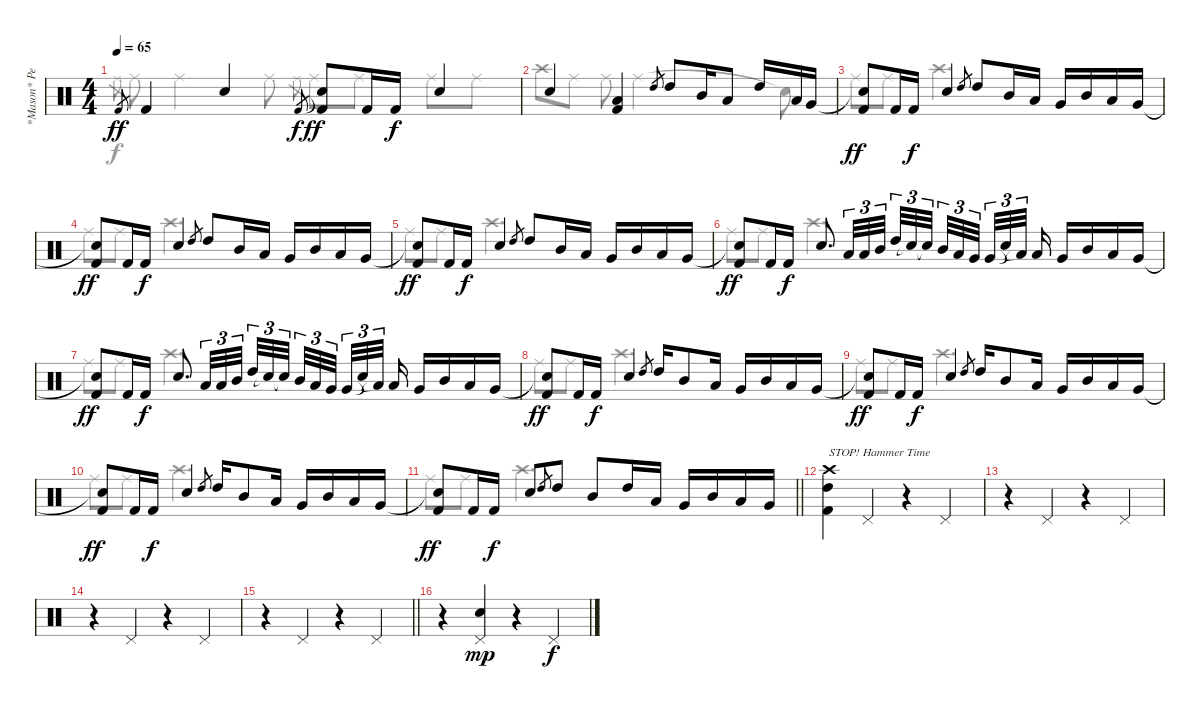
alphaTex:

\track ("*Mason* Percussion" "*Mason* Pe") {instrument percussion}
\staff {score}
\articulation defaults
\voice
\ts (4 4)
\tempo 65
\clef neutral
\ks c "Kick (hit) 2".8{gr dy ff} "Kick (hit) 2".4 "Snare (hit) 2".4 "Kick (hit) 2".8{gr dy f}
("Snare (hit)"{t} "Kick (hit) 2").8{dy ff} "Kick (hit) 2".16 "Kick (hit) 2".16{dy f} "Snare (hit) 2".4 |
"Snare (hit) 2".4 ("Low Floor Tom (hit)" "Kick (hit) 2").4 "High Tom (hit)".8{gr} "High Tom (hit)".8 "Mid Tom (hit)".16 "Low Tom (hit)".8 "High Tom (hit)".16 "Low Tom (hit)".16 "Very Low Tom (hit)".16 |
("Snare (hit)"{t} "Kick (hit) 2").8{dy ff} "Kick (hit) 2".16 "Kick (hit) 2".16{dy f} "Snare (hit) 2".4 "High Tom (hit)".8{gr} "High Tom (hit)".8 "Mid Tom (hit)".16 "Low Tom (hit)".16 "Very Low Tom (hit)".16 "Mid Tom (hit)".16 "Low Tom (hit)".16 "Very Low Tom (hit)".16 |
("Snare (hit)"{t} "Kick (hit) 2").8{dy ff} "Kick (hit) 2".16 "Kick (hit) 2".16{dy f} "Snare (hit) 2".4 "High Tom (hit)".8{gr} "High Tom (hit)".8 "Mid Tom (hit)".16 "Low Tom (hit)".16 "Very Low Tom (hit)".16 "Mid Tom (hit)".16 "Low Tom (hit)".16 "Very Low Tom (hit)".16 |
("Snare (hit)"{t} "Kick (hit) 2").8{dy ff} "Kick (hit) 2".16 "Kick (hit) 2".16{dy f} "Snare (hit) 2".4 "High Tom (hit)".8{gr} "High Tom (hit)".8 "Mid Tom (hit)".16 "Low Tom (hit)".16 "Very Low Tom (hit)".16 "Mid Tom (hit)".16 "Low Tom (hit)".16 "Very Low Tom (hit)".16 |
("Snare (hit)"{t} "Kick (hit) 2").8{dy ff} "Kick (hit) 2".16 "Kick (hit) 2".16{dy f} "Snare (hit) 2".8{d} "Low Tom (hit)".32{tu (3 2)} "Low Tom (hit)".32{tu (3 2)} "Mid Tom (hit)".32{tu (3 2)} "High Tom (hit)".32{tu (3 2)} "Snare (hit)"{t}.32{tu (3 2)} "Snare (hit)"{t}.32{tu (3 2) beam splitsecondary} "Mid Tom (hit)".32{tu (3 2)} "Low Tom (hit)".32{tu (3 2)} "Very Low Tom (hit)".32{tu (3 2) beam splitsecondary} "Very Low Tom (hit)".32{tu (3 2)} "Snare (hit)"{t}.32{tu (3 2)} "Low Tom (hit)"{t}.32{tu (3 2) beam splitsecondary} "Low Tom (hit)".16 "Very Low Tom (hit)".16 "Mid Tom (hit)".16 "Low Tom (hit)".16 "Very Low Tom (hit)".16 |
("Snare (hit)"{t} "Kick (hit) 2").8{dy ff} "Kick (hit) 2".16 "Kick (hit) 2".16{dy f} "Snare (hit) 2".8{d} "Low Tom (hit)".32{tu (3 2)} "Low Tom (hit)".32{tu (3 2)} "Mid Tom (hit)".32{tu (3 2)} "High Tom (hit)".32{tu (3 2)} "Snare (hit)"{t}.32{tu (3 2)} "Snare (hit)"{t}.32{tu (3 2) beam splitsecondary} "Mid Tom (hit)".32{tu (3 2)} "Low Tom (hit)".32{tu (3 2)} "Very Low Tom (hit)".32{tu (3 2) beam splitsecondary} "Very Low Tom (hit)".32{tu (3 2)} "Snare (hit)"{t}.32{tu (3 2)} "Low Tom (hit)"{t}.32{tu (3 2) beam splitsecondary} "Low Tom (hit)".16 "Very Low Tom (hit)".16 "Mid Tom (hit)".16 "Low Tom (hit)".16 "Very Low Tom (hit)".16 |
("Snare (hit)"{t} "Kick (hit) 2").8{dy ff} "Kick (hit) 2".16 "Kick (hit) 2".16{dy f} "Snare (hit) 2".4 "High Tom (hit)".8{gr} "High Tom (hit)".16 "Mid Tom (hit)".8 "Low Tom (hit)".16 "Very Low Tom (hit)".16 "Mid Tom (hit)".16 "Low Tom (hit)".16 "Very Low Tom (hit)".16 |
("Snare (hit)"{t} "Kick (hit) 2").8{dy ff} "Kick (hit) 2".16 "Kick (hit) 2".16{dy f} "Snare (hit) 2".4 "High Tom (hit)".8{gr} "High Tom (hit)".16 "Mid Tom (hit)".8 "Low Tom (hit)".16 "Very Low Tom (hit)".16 "Mid Tom (hit)".16 "Low Tom (hit)".16 "Very Low Tom (hit)".16 |
("Snare (hit)"{t} "Kick (hit) 2").8{dy ff} "Kick (hit) 2".16 "Kick (hit) 2".16{dy f} "Snare (hit) 2".4 "High Tom (hit)".8{gr} "High Tom (hit)".16 "Mid Tom (hit)".8 "Low Tom (hit)".16 "Very Low Tom (hit)".16 "Mid Tom (hit)".16 "Low Tom (hit)".16 "Very Low Tom (hit)".16 |
\barLineRight lightlight
("Snare (hit)"{t} "Kick (hit) 2").8{dy ff} "Kick (hit) 2".16 "Kick (hit) 2".16{dy f} "Snare (hit) 2".8 "High Tom (hit)".8{gr} "High Tom (hit)".8 "Mid Tom (hit)".8 "High Tom (hit)".16 "Low Tom (hit)".16 "Very Low Tom (hit)".16 "Mid Tom (hit)".16 "Low Tom (hit)".16 "Very Low Tom (hit)".16 |
("Crash high (hit)" "High Tom (hit)" "Kick (hit) 2").4{txt "STOP! Hammer Time"} "Pedal Hi-Hat (hit)".4 r.4 "Pedal Hi-Hat (hit)".4 |
r.4 "Pedal Hi-Hat (hit)".4 r.4 "Pedal Hi-Hat (hit)".4 |
r.4 "Pedal Hi-Hat (hit)".4 r.4 "Pedal Hi-Hat (hit)".4 |
\barLineRight lightlight
r.4 "Pedal Hi-Hat (hit)".4 r.4 "Pedal Hi-Hat (hit)".4 |
r.4 ("Pedal Hi-Hat (hit)" "Snare (hit) 2").4{dy mp} r.4 "Pedal Hi-Hat (hit)".4{dy f}
\voice
\clef neutral
\ottava regular
\simile none
\ks c "Ride (middle)".8{gr dy f} "Ride (middle)".8 "Ride (middle)".4 "Ride (middle)".8 "Ride (middle)".8{gr} "Ride (middle)".8 "Ride (middle)".8 "Ride (middle)".8 "Ride (middle)".8
|
"Crash high (hit)".8 "Ride (middle)".8 "Ride (middle)".8 "Ride (middle)".2 "Snare (hit)"{t}.8 |
"Ride (middle)".8 "Ride (middle)".8 "Crash high (hit)".2{d} |
"Ride (middle)".8 "Ride (middle)".8 "Crash high (hit)".2{d} |
"Ride (middle)".8 "Ride (middle)".8 "Crash high (hit)".2{d} |
"Ride (middle)".8 "Ride (middle)".8 "Crash high (hit)".2{d} |
"Ride (middle)".8 "Ride (middle)".8 "Crash high (hit)".2{d} |
"Ride (middle)".8 "Ride (middle)".8 "Crash high (hit)".2{d} |
"Ride (middle)".8 "Ride (middle)".8 "Crash high (hit)".2{d} |
"Ride (middle)".8 "Ride (middle)".8 "Crash high (hit)".2{d} |
\barLineRight lightlight "Ride (middle)".8 "Ride (middle)".8 "Crash high (hit)".2{d}
|
|
|
|
\barLineRight lightlight
|
